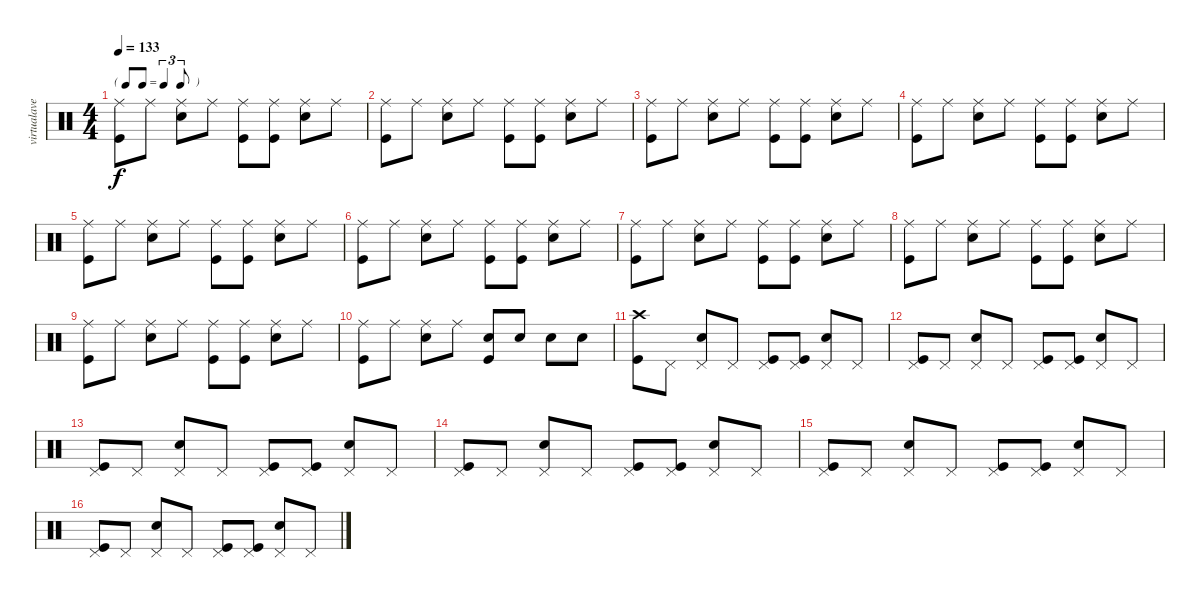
\track ("virtualave.net" "virtualave") {instrument percussion}
\staff {score}
\articulation defaults
\ts (4 4)
\tf triplet8th
\tempo 133
\clef neutral
\ks c
("Ride (middle)" "Kick (hit)").8{dy f} "Ride (middle)".8 ("Ride (middle)" "Snare (hit) 2").8 "Ride (middle)".8 ("Ride (middle)" "Kick (hit)").8 ("Ride (middle)" "Kick (hit)").8 ("Ride (middle)" "Snare (hit) 2").8 "Ride (middle)".8 |
("Ride (middle)" "Kick (hit)").8 "Ride (middle)".8 ("Ride (middle)" "Snare (hit) 2").8 "Ride (middle)".8 ("Ride (middle)" "Kick (hit)").8 ("Ride (middle)" "Kick (hit)").8 ("Ride (middle)" "Snare (hit) 2").8 "Ride (middle)".8 |
("Ride (middle)" "Kick (hit)").8 "Ride (middle)".8 ("Ride (middle)" "Snare (hit) 2").8 "Ride (middle)".8 ("Ride (middle)" "Kick (hit)").8 ("Ride (middle)" "Kick (hit)").8 ("Ride (middle)" "Snare (hit) 2").8 "Ride (middle)".8 |
("Ride (middle)" "Kick (hit)").8 "Ride (middle)".8 ("Ride (middle)" "Snare (hit) 2").8 "Ride (middle)".8 ("Ride (middle)" "Kick (hit)").8 ("Ride (middle)" "Kick (hit)").8 ("Ride (middle)" "Snare (hit) 2").8 "Ride (middle)".8 |
("Ride (middle)" "Kick (hit)").8 "Ride (middle)".8 ("Ride (middle)" "Snare (hit) 2").8 "Ride (middle)".8 ("Ride (middle)" "Kick (hit)").8 ("Ride (middle)" "Kick (hit)").8 ("Ride (middle)" "Snare (hit) 2").8 "Ride (middle)".8 |
("Ride (middle)" "Kick (hit)").8 "Ride (middle)".8 ("Ride (middle)" "Snare (hit) 2").8 "Ride (middle)".8 ("Ride (middle)" "Kick (hit)").8 ("Ride (middle)" "Kick (hit)").8 ("Ride (middle)" "Snare (hit) 2").8 "Ride (middle)".8 |
("Ride (middle)" "Kick (hit)").8 "Ride (middle)".8 ("Ride (middle)" "Snare (hit) 2").8 "Ride (middle)".8 ("Ride (middle)" "Kick (hit)").8 ("Ride (middle)" "Kick (hit)").8 ("Ride (middle)" "Snare (hit) 2").8 "Ride (middle)".8 |
("Ride (middle)" "Kick (hit)").8 "Ride (middle)".8 ("Ride (middle)" "Snare (hit) 2").8 "Ride (middle)".8 ("Ride (middle)" "Kick (hit)").8 ("Ride (middle)" "Kick (hit)").8 ("Ride (middle)" "Snare (hit) 2").8 "Ride (middle)".8 |
("Ride (middle)" "Kick (hit)").8 "Ride (middle)".8 ("Ride (middle)" "Snare (hit) 2").8 "Ride (middle)".8 ("Ride (middle)" "Kick (hit)").8 ("Ride (middle)" "Kick (hit)").8 ("Ride (middle)" "Snare (hit) 2").8 "Ride (middle)".8 |
("Ride (middle)" "Kick (hit)").8 "Ride (middle)".8 ("Ride (middle)" "Snare (hit) 2").8 "Ride (middle)".8 ("Snare (hit) 2" "Kick (hit)").8 "Snare (hit) 2".8 "Snare (hit) 2".8 "Snare (hit) 2".8 |
("Crash high (hit)" "Kick (hit)").8 "Pedal Hi-Hat (hit)".8 ("Pedal Hi-Hat (hit)" "Snare (hit) 2").8 "Pedal Hi-Hat (hit)".8 ("Pedal Hi-Hat (hit)" "Kick (hit)").8 ("Pedal Hi-Hat (hit)" "Kick (hit)").8 ("Pedal Hi-Hat (hit)" "Snare (hit) 2").8 "Pedal Hi-Hat (hit)".8 |
("Pedal Hi-Hat (hit)" "Kick (hit)").8 "Pedal Hi-Hat (hit)".8 ("Pedal Hi-Hat (hit)" "Snare (hit) 2").8 "Pedal Hi-Hat (hit)".8 ("Pedal Hi-Hat (hit)" "Kick (hit)").8 ("Pedal Hi-Hat (hit)" "Kick (hit)").8 ("Pedal Hi-Hat (hit)" "Snare (hit) 2").8 "Pedal Hi-Hat (hit)".8 |
("Pedal Hi-Hat (hit)" "Kick (hit)").8 "Pedal Hi-Hat (hit)".8 ("Pedal Hi-Hat (hit)" "Snare (hit) 2").8 "Pedal Hi-Hat (hit)".8 ("Pedal Hi-Hat (hit)" "Kick (hit)").8 ("Pedal Hi-Hat (hit)" "Kick (hit)").8 ("Pedal Hi-Hat (hit)" "Snare (hit) 2").8 "Pedal Hi-Hat (hit)".8 |
("Pedal Hi-Hat (hit)" "Kick (hit)").8 "Pedal Hi-Hat (hit)".8 ("Pedal Hi-Hat (hit)" "Snare (hit) 2").8 "Pedal Hi-Hat (hit)".8 ("Pedal Hi-Hat (hit)" "Kick (hit)").8 ("Pedal Hi-Hat (hit)" "Kick (hit)").8 ("Pedal Hi-Hat (hit)" "Snare (hit) 2").8 "Pedal Hi-Hat (hit)".8 |
("Pedal Hi-Hat (hit)" "Kick (hit)").8 "Pedal Hi-Hat (hit)".8 ("Pedal Hi-Hat (hit)" "Snare (hit) 2").8 "Pedal Hi-Hat (hit)".8 ("Pedal Hi-Hat (hit)" "Kick (hit)").8 ("Pedal Hi-Hat (hit)" "Kick (hit)").8 ("Pedal Hi-Hat (hit)" "Snare (hit) 2").8 "Pedal Hi-Hat (hit)".8 |
("Pedal Hi-Hat (hit)" "Kick (hit)").8 "Pedal Hi-Hat (hit)".8 ("Pedal Hi-Hat (hit)" "Snare (hit) 2").8 "Pedal Hi-Hat (hit)".8 ("Pedal Hi-Hat (hit)" "Kick (hit)").8 ("Pedal Hi-Hat (hit)" "Kick (hit)").8 ("Pedal Hi-Hat (hit)" "Snare (hit) 2").8 "Pedal Hi-Hat (hit)".8
